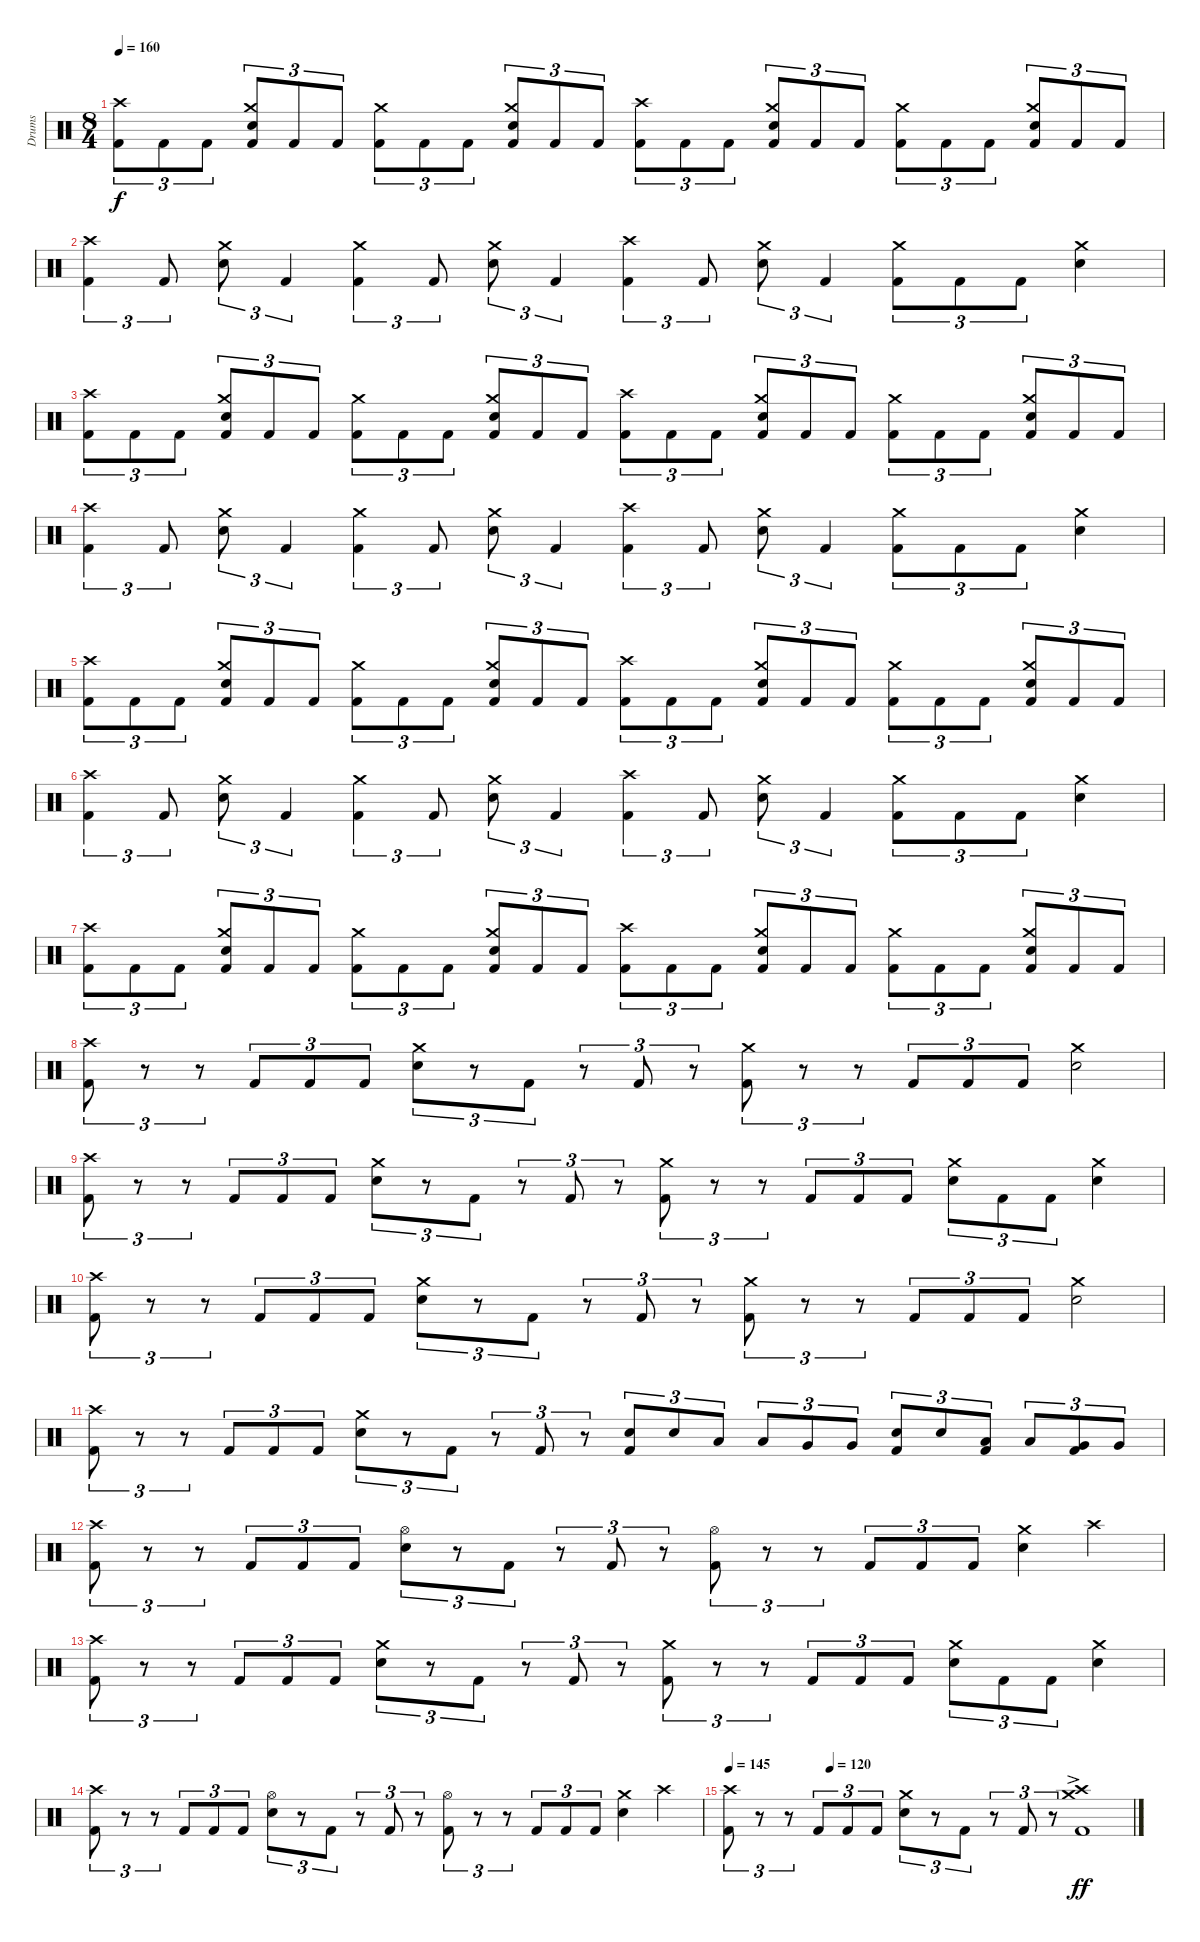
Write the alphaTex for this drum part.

\track ("Drums" "Drums") {instrument percussion}
\staff {score}
\articulation defaults
\ts (8 4)
\tempo 160
\clef neutral
\ks c
("Crash high (hit)" "Kick (hit) 2").8{tu (3 2) dy f} "Kick (hit) 2".8{tu (3 2)} "Kick (hit) 2".8{tu (3 2)} ("Crash medium (hit)" "Electric Snare (hit)" "Kick (hit) 2").8{tu (3 2)} "Kick (hit) 2".8{tu (3 2)} "Kick (hit) 2".8{tu (3 2)} ("Crash medium (hit)" "Kick (hit) 2").8{tu (3 2)} "Kick (hit) 2".8{tu (3 2)} "Kick (hit) 2".8{tu (3 2)} ("Crash medium (hit)" "Electric Snare (hit)" "Kick (hit) 2").8{tu (3 2)} "Kick (hit) 2".8{tu (3 2)} "Kick (hit) 2".8{tu (3 2)} ("Crash high (hit)" "Kick (hit) 2").8{tu (3 2)} "Kick (hit) 2".8{tu (3 2)} "Kick (hit) 2".8{tu (3 2)} ("Crash medium (hit)" "Electric Snare (hit)" "Kick (hit) 2").8{tu (3 2)} "Kick (hit) 2".8{tu (3 2)} "Kick (hit) 2".8{tu (3 2)} ("Crash medium (hit)" "Kick (hit) 2").8{tu (3 2)} "Kick (hit) 2".8{tu (3 2)} "Kick (hit) 2".8{tu (3 2)} ("Crash medium (hit)" "Electric Snare (hit)" "Kick (hit) 2").8{tu (3 2)} "Kick (hit) 2".8{tu (3 2)} "Kick (hit) 2".8{tu (3 2)} |
("Crash high (hit)" "Kick (hit) 2").4{tu (3 2)} "Kick (hit) 2".8{tu (3 2)} ("Crash medium (hit)" "Electric Snare (hit)").8{tu (3 2)} "Kick (hit) 2".4{tu (3 2)} ("Crash medium (hit)" "Kick (hit) 2").4{tu (3 2)} "Kick (hit) 2".8{tu (3 2)} ("Crash medium (hit)" "Electric Snare (hit)").8{tu (3 2)} "Kick (hit) 2".4{tu (3 2)} ("Crash high (hit)" "Kick (hit) 2").4{tu (3 2)} "Kick (hit) 2".8{tu (3 2)} ("Crash medium (hit)" "Electric Snare (hit)").8{tu (3 2)} "Kick (hit) 2".4{tu (3 2)} ("Crash medium (hit)" "Kick (hit) 2").8{tu (3 2)} "Kick (hit) 2".8{tu (3 2)} "Kick (hit) 2".8{tu (3 2)} ("Crash medium (hit)" "Electric Snare (hit)").4 |
("Crash high (hit)" "Kick (hit) 2").8{tu (3 2)} "Kick (hit) 2".8{tu (3 2)} "Kick (hit) 2".8{tu (3 2)} ("Crash medium (hit)" "Electric Snare (hit)" "Kick (hit) 2").8{tu (3 2)} "Kick (hit) 2".8{tu (3 2)} "Kick (hit) 2".8{tu (3 2)} ("Crash medium (hit)" "Kick (hit) 2").8{tu (3 2)} "Kick (hit) 2".8{tu (3 2)} "Kick (hit) 2".8{tu (3 2)} ("Crash medium (hit)" "Electric Snare (hit)" "Kick (hit) 2").8{tu (3 2)} "Kick (hit) 2".8{tu (3 2)} "Kick (hit) 2".8{tu (3 2)} ("Crash high (hit)" "Kick (hit) 2").8{tu (3 2)} "Kick (hit) 2".8{tu (3 2)} "Kick (hit) 2".8{tu (3 2)} ("Crash medium (hit)" "Electric Snare (hit)" "Kick (hit) 2").8{tu (3 2)} "Kick (hit) 2".8{tu (3 2)} "Kick (hit) 2".8{tu (3 2)} ("Crash medium (hit)" "Kick (hit) 2").8{tu (3 2)} "Kick (hit) 2".8{tu (3 2)} "Kick (hit) 2".8{tu (3 2)} ("Crash medium (hit)" "Electric Snare (hit)" "Kick (hit) 2").8{tu (3 2)} "Kick (hit) 2".8{tu (3 2)} "Kick (hit) 2".8{tu (3 2)} |
("Crash high (hit)" "Kick (hit) 2").4{tu (3 2)} "Kick (hit) 2".8{tu (3 2)} ("Crash medium (hit)" "Electric Snare (hit)").8{tu (3 2)} "Kick (hit) 2".4{tu (3 2)} ("Crash medium (hit)" "Kick (hit) 2").4{tu (3 2)} "Kick (hit) 2".8{tu (3 2)} ("Crash medium (hit)" "Electric Snare (hit)").8{tu (3 2)} "Kick (hit) 2".4{tu (3 2)} ("Crash high (hit)" "Kick (hit) 2").4{tu (3 2)} "Kick (hit) 2".8{tu (3 2)} ("Crash medium (hit)" "Electric Snare (hit)").8{tu (3 2)} "Kick (hit) 2".4{tu (3 2)} ("Crash medium (hit)" "Kick (hit) 2").8{tu (3 2)} "Kick (hit) 2".8{tu (3 2)} "Kick (hit) 2".8{tu (3 2)} ("Crash medium (hit)" "Electric Snare (hit)").4 |
("Crash high (hit)" "Kick (hit) 2").8{tu (3 2)} "Kick (hit) 2".8{tu (3 2)} "Kick (hit) 2".8{tu (3 2)} ("Crash medium (hit)" "Electric Snare (hit)" "Kick (hit) 2").8{tu (3 2)} "Kick (hit) 2".8{tu (3 2)} "Kick (hit) 2".8{tu (3 2)} ("Crash medium (hit)" "Kick (hit) 2").8{tu (3 2)} "Kick (hit) 2".8{tu (3 2)} "Kick (hit) 2".8{tu (3 2)} ("Crash medium (hit)" "Electric Snare (hit)" "Kick (hit) 2").8{tu (3 2)} "Kick (hit) 2".8{tu (3 2)} "Kick (hit) 2".8{tu (3 2)} ("Crash high (hit)" "Kick (hit) 2").8{tu (3 2)} "Kick (hit) 2".8{tu (3 2)} "Kick (hit) 2".8{tu (3 2)} ("Crash medium (hit)" "Electric Snare (hit)" "Kick (hit) 2").8{tu (3 2)} "Kick (hit) 2".8{tu (3 2)} "Kick (hit) 2".8{tu (3 2)} ("Crash medium (hit)" "Kick (hit) 2").8{tu (3 2)} "Kick (hit) 2".8{tu (3 2)} "Kick (hit) 2".8{tu (3 2)} ("Crash medium (hit)" "Electric Snare (hit)" "Kick (hit) 2").8{tu (3 2)} "Kick (hit) 2".8{tu (3 2)} "Kick (hit) 2".8{tu (3 2)} |
("Crash high (hit)" "Kick (hit) 2").4{tu (3 2)} "Kick (hit) 2".8{tu (3 2)} ("Crash medium (hit)" "Electric Snare (hit)").8{tu (3 2)} "Kick (hit) 2".4{tu (3 2)} ("Crash medium (hit)" "Kick (hit) 2").4{tu (3 2)} "Kick (hit) 2".8{tu (3 2)} ("Crash medium (hit)" "Electric Snare (hit)").8{tu (3 2)} "Kick (hit) 2".4{tu (3 2)} ("Crash high (hit)" "Kick (hit) 2").4{tu (3 2)} "Kick (hit) 2".8{tu (3 2)} ("Crash medium (hit)" "Electric Snare (hit)").8{tu (3 2)} "Kick (hit) 2".4{tu (3 2)} ("Crash medium (hit)" "Kick (hit) 2").8{tu (3 2)} "Kick (hit) 2".8{tu (3 2)} "Kick (hit) 2".8{tu (3 2)} ("Crash medium (hit)" "Electric Snare (hit)").4 |
("Crash high (hit)" "Kick (hit) 2").8{tu (3 2)} "Kick (hit) 2".8{tu (3 2)} "Kick (hit) 2".8{tu (3 2)} ("Crash medium (hit)" "Electric Snare (hit)" "Kick (hit) 2").8{tu (3 2)} "Kick (hit) 2".8{tu (3 2)} "Kick (hit) 2".8{tu (3 2)} ("Crash medium (hit)" "Kick (hit) 2").8{tu (3 2)} "Kick (hit) 2".8{tu (3 2)} "Kick (hit) 2".8{tu (3 2)} ("Crash medium (hit)" "Electric Snare (hit)" "Kick (hit) 2").8{tu (3 2)} "Kick (hit) 2".8{tu (3 2)} "Kick (hit) 2".8{tu (3 2)} ("Crash high (hit)" "Kick (hit) 2").8{tu (3 2)} "Kick (hit) 2".8{tu (3 2)} "Kick (hit) 2".8{tu (3 2)} ("Crash medium (hit)" "Electric Snare (hit)" "Kick (hit) 2").8{tu (3 2)} "Kick (hit) 2".8{tu (3 2)} "Kick (hit) 2".8{tu (3 2)} ("Crash medium (hit)" "Kick (hit) 2").8{tu (3 2)} "Kick (hit) 2".8{tu (3 2)} "Kick (hit) 2".8{tu (3 2)} ("Crash medium (hit)" "Electric Snare (hit)" "Kick (hit) 2").8{tu (3 2)} "Kick (hit) 2".8{tu (3 2)} "Kick (hit) 2".8{tu (3 2)} |
("Crash high (hit)" "Kick (hit) 2").8{tu (3 2)} r.8{tu (3 2)} r.8{tu (3 2)} "Kick (hit) 2".8{tu (3 2)} "Kick (hit) 2".8{tu (3 2)} "Kick (hit) 2".8{tu (3 2)} ("Crash medium (hit)" "Electric Snare (hit)").8{tu (3 2)} r.8{tu (3 2)} "Kick (hit) 2".8{tu (3 2)} r.8{tu (3 2)} "Kick (hit) 2".8{tu (3 2)} r.8{tu (3 2)} ("Crash medium (hit)" "Kick (hit) 2").8{tu (3 2)} r.8{tu (3 2)} r.8{tu (3 2)} "Kick (hit) 2".8{tu (3 2)} "Kick (hit) 2".8{tu (3 2)} "Kick (hit) 2".8{tu (3 2)} ("Crash medium (hit)" "Electric Snare (hit)").2 |
("Crash high (hit)" "Kick (hit) 2").8{tu (3 2)} r.8{tu (3 2)} r.8{tu (3 2)} "Kick (hit) 2".8{tu (3 2)} "Kick (hit) 2".8{tu (3 2)} "Kick (hit) 2".8{tu (3 2)} ("Crash medium (hit)" "Electric Snare (hit)").8{tu (3 2)} r.8{tu (3 2)} "Kick (hit) 2".8{tu (3 2)} r.8{tu (3 2)} "Kick (hit) 2".8{tu (3 2)} r.8{tu (3 2)} ("Crash medium (hit)" "Kick (hit) 2").8{tu (3 2)} r.8{tu (3 2)} r.8{tu (3 2)} "Kick (hit) 2".8{tu (3 2)} "Kick (hit) 2".8{tu (3 2)} "Kick (hit) 2".8{tu (3 2)} ("Crash medium (hit)" "Electric Snare (hit)").8{tu (3 2)} "Kick (hit) 2".8{tu (3 2)} "Kick (hit) 2".8{tu (3 2)} ("Crash medium (hit)" "Electric Snare (hit)").4 |
("Crash high (hit)" "Kick (hit) 2").8{tu (3 2)} r.8{tu (3 2)} r.8{tu (3 2)} "Kick (hit) 2".8{tu (3 2)} "Kick (hit) 2".8{tu (3 2)} "Kick (hit) 2".8{tu (3 2)} ("Crash medium (hit)" "Electric Snare (hit)").8{tu (3 2)} r.8{tu (3 2)} "Kick (hit) 2".8{tu (3 2)} r.8{tu (3 2)} "Kick (hit) 2".8{tu (3 2)} r.8{tu (3 2)} ("Crash medium (hit)" "Kick (hit) 2").8{tu (3 2)} r.8{tu (3 2)} r.8{tu (3 2)} "Kick (hit) 2".8{tu (3 2)} "Kick (hit) 2".8{tu (3 2)} "Kick (hit) 2".8{tu (3 2)} ("Crash medium (hit)" "Electric Snare (hit)").2 |
("Crash high (hit)" "Kick (hit) 2").8{tu (3 2)} r.8{tu (3 2)} r.8{tu (3 2)} "Kick (hit) 2".8{tu (3 2)} "Kick (hit) 2".8{tu (3 2)} "Kick (hit) 2".8{tu (3 2)} ("Crash medium (hit)" "Electric Snare (hit)").8{tu (3 2)} r.8{tu (3 2)} "Kick (hit) 2".8{tu (3 2)} r.8{tu (3 2)} "Kick (hit) 2".8{tu (3 2)} r.8{tu (3 2)} ("Electric Snare (hit)" "Kick (hit) 2").8{tu (3 2)} "Electric Snare (hit)".8{tu (3 2)} "Low Tom (hit)".8{tu (3 2)} "Low Tom (hit)".8{tu (3 2)} "Very Low Tom (hit)".8{tu (3 2)} "Very Low Tom (hit)".8{tu (3 2)} ("Electric Snare (hit)" "Kick (hit) 2").8{tu (3 2)} "Electric Snare (hit)".8{tu (3 2)} ("Low Tom (hit)" "Kick (hit) 2").8{tu (3 2)} "Low Tom (hit)".8{tu (3 2)} ("Very Low Tom (hit)" "Kick (hit) 2").8{tu (3 2)} "Very Low Tom (hit)".8{tu (3 2)} |
("Crash high (hit)" "Kick (hit) 2").8{tu (3 2)} r.8{tu (3 2)} r.8{tu (3 2)} "Kick (hit) 2".8{tu (3 2)} "Kick (hit) 2".8{tu (3 2)} "Kick (hit) 2".8{tu (3 2)} ("Hi-Hat (open)" "Electric Snare (hit)").8{tu (3 2)} r.8{tu (3 2)} "Kick (hit) 2".8{tu (3 2)} r.8{tu (3 2)} "Kick (hit) 2".8{tu (3 2)} r.8{tu (3 2)} ("Hi-Hat (open)" "Kick (hit) 2").8{tu (3 2)} r.8{tu (3 2)} r.8{tu (3 2)} "Kick (hit) 2".8{tu (3 2)} "Kick (hit) 2".8{tu (3 2)} "Kick (hit) 2".8{tu (3 2)} ("Crash medium (hit)" "Electric Snare (hit)").4 "Crash high (hit)".4 |
("Crash high (hit)" "Kick (hit) 2").8{tu (3 2)} r.8{tu (3 2)} r.8{tu (3 2)} "Kick (hit) 2".8{tu (3 2)} "Kick (hit) 2".8{tu (3 2)} "Kick (hit) 2".8{tu (3 2)} ("Crash medium (hit)" "Electric Snare (hit)").8{tu (3 2)} r.8{tu (3 2)} "Kick (hit) 2".8{tu (3 2)} r.8{tu (3 2)} "Kick (hit) 2".8{tu (3 2)} r.8{tu (3 2)} ("Crash medium (hit)" "Kick (hit) 2").8{tu (3 2)} r.8{tu (3 2)} r.8{tu (3 2)} "Kick (hit) 2".8{tu (3 2)} "Kick (hit) 2".8{tu (3 2)} "Kick (hit) 2".8{tu (3 2)} ("Crash medium (hit)" "Electric Snare (hit)").8{tu (3 2)} "Kick (hit) 2".8{tu (3 2)} "Kick (hit) 2".8{tu (3 2)} ("Crash medium (hit)" "Electric Snare (hit)").4 |
("Crash high (hit)" "Kick (hit) 2").8{tu (3 2)} r.8{tu (3 2)} r.8{tu (3 2)} "Kick (hit) 2".8{tu (3 2)} "Kick (hit) 2".8{tu (3 2)} "Kick (hit) 2".8{tu (3 2)} ("Hi-Hat (open)" "Electric Snare (hit)").8{tu (3 2)} r.8{tu (3 2)} "Kick (hit) 2".8{tu (3 2)} r.8{tu (3 2)} "Kick (hit) 2".8{tu (3 2)} r.8{tu (3 2)} ("Hi-Hat (open)" "Kick (hit) 2").8{tu (3 2)} r.8{tu (3 2)} r.8{tu (3 2)} "Kick (hit) 2".8{tu (3 2)} "Kick (hit) 2".8{tu (3 2)} "Kick (hit) 2".8{tu (3 2)} ("Crash medium (hit)" "Electric Snare (hit)").4 "Crash high (hit)".4 |
\tempo 145
\tempo (120 0.25)
("Crash high (hit)" "Kick (hit) 2").8{tu (3 2)} r.8{tu (3 2)} r.8{tu (3 2)} "Kick (hit) 2".8{tu (3 2)} "Kick (hit) 2".8{tu (3 2)} "Kick (hit) 2".8{tu (3 2)} ("Crash medium (hit)" "Electric Snare (hit)").8{tu (3 2)} r.8{tu (3 2)} "Kick (hit) 2".8{tu (3 2)} r.8{tu (3 2)} "Kick (hit) 2".8{tu (3 2)} r.8{tu (3 2)} ("Crash high (hit)" "Crash medium (hit)" "Kick (hit) 2"{ac}).1{dy ff}
